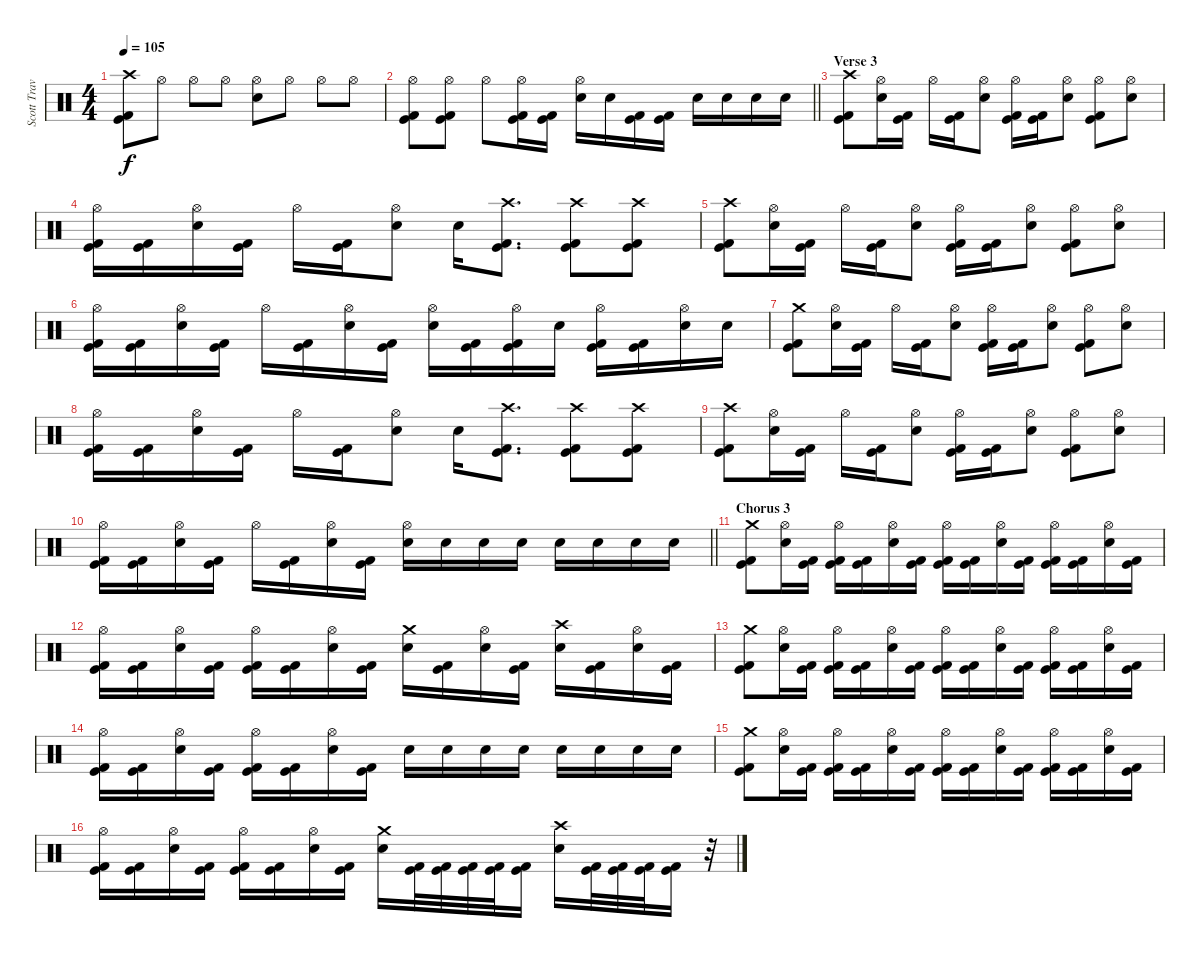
\track ("Scott Travis" "Scott Trav") {instrument percussion}
\staff {score}
\articulation defaults
\ts (4 4)
\tempo 105
\clef neutral
\ks c
("Crash high (hit)" "Kick (hit)" "Kick (hit) 2").8{dy f} "Hi-Hat (open)".8 "Hi-Hat (open)".8 "Hi-Hat (open)".8 ("Hi-Hat (open)" "Snare (hit) 2").8 "Hi-Hat (open)".8 "Hi-Hat (open)".8 "Hi-Hat (open)".8 |
\barLineRight lightlight
("Hi-Hat (open)" "Kick (hit)" "Kick (hit) 2").8 ("Hi-Hat (open)" "Kick (hit)" "Kick (hit) 2").8 "Hi-Hat (open)".8 ("Hi-Hat (open)" "Kick (hit)" "Kick (hit) 2").16 ("Kick (hit)" "Kick (hit) 2").16 ("Hi-Hat (open)" "Snare (hit) 2").16 "Snare (hit) 2".16 ("Kick (hit)" "Kick (hit) 2").16 ("Kick (hit)" "Kick (hit) 2").16 "Snare (hit) 2".16 "Snare (hit) 2".16 "Snare (hit) 2".16 "Snare (hit) 2".16 |
\section ("" "Verse 3")
("Crash high (hit)" "Kick (hit) 2" "Kick (hit)").8 ("Hi-Hat (open)" "Snare (hit) 2").16 ("Kick (hit) 2" "Kick (hit)").16 "Hi-Hat (open)".16 ("Kick (hit) 2" "Kick (hit)").16 ("Hi-Hat (open)" "Snare (hit) 2").8 ("Hi-Hat (open)" "Kick (hit) 2" "Kick (hit)").16 ("Kick (hit) 2" "Kick (hit)").16 ("Hi-Hat (open)" "Snare (hit) 2").8 ("Hi-Hat (open)" "Kick (hit) 2" "Kick (hit)").8 ("Hi-Hat (open)" "Snare (hit) 2").8 |
("Hi-Hat (open)" "Kick (hit) 2" "Kick (hit)").16 ("Kick (hit) 2" "Kick (hit)").16 ("Hi-Hat (open)" "Snare (hit) 2").16 ("Kick (hit) 2" "Kick (hit)").16 "Hi-Hat (open)".16 ("Kick (hit) 2" "Kick (hit)").16 ("Hi-Hat (open)" "Snare (hit) 2").8 "Snare (hit) 2".16 ("Crash high (hit)" "Kick (hit)" "Kick (hit) 2").8{d} ("Crash high (hit)" "Kick (hit) 2" "Kick (hit)").8 ("Crash high (hit)" "Kick (hit)" "Kick (hit) 2").8 |
("Crash high (hit)" "Kick (hit) 2" "Kick (hit)").8 ("Hi-Hat (open)" "Snare (hit) 2").16 ("Kick (hit) 2" "Kick (hit)").16 "Hi-Hat (open)".16 ("Kick (hit) 2" "Kick (hit)").16 ("Hi-Hat (open)" "Snare (hit) 2").8 ("Hi-Hat (open)" "Kick (hit) 2" "Kick (hit)").16 ("Kick (hit) 2" "Kick (hit)").16 ("Hi-Hat (open)" "Snare (hit) 2").8 ("Hi-Hat (open)" "Kick (hit) 2" "Kick (hit)").8 ("Hi-Hat (open)" "Snare (hit) 2").8 |
("Hi-Hat (open)" "Kick (hit) 2" "Kick (hit)").16 ("Kick (hit) 2" "Kick (hit)").16 ("Hi-Hat (open)" "Snare (hit) 2").16 ("Kick (hit) 2" "Kick (hit)").16 "Hi-Hat (open)".16 ("Kick (hit) 2" "Kick (hit)").16 ("Hi-Hat (open)" "Snare (hit) 2").16 ("Kick (hit)" "Kick (hit) 2").16 ("Hi-Hat (open)" "Snare (hit) 2").16 ("Kick (hit) 2" "Kick (hit)").16 ("Hi-Hat (open)" "Kick (hit) 2" "Kick (hit)").16 "Snare (hit) 2".16 ("Hi-Hat (open)" "Kick (hit) 2" "Kick (hit)").16 ("Kick (hit) 2" "Kick (hit)").16 ("Hi-Hat (open)" "Snare (hit) 2").16 "Snare (hit) 2".16 |
("Crash medium (hit)" "Kick (hit) 2" "Kick (hit)").8 ("Hi-Hat (open)" "Snare (hit) 2").16 ("Kick (hit) 2" "Kick (hit)").16 "Hi-Hat (open)".16 ("Kick (hit) 2" "Kick (hit)").16 ("Hi-Hat (open)" "Snare (hit) 2").8 ("Hi-Hat (open)" "Kick (hit) 2" "Kick (hit)").16 ("Kick (hit) 2" "Kick (hit)").16 ("Hi-Hat (open)" "Snare (hit) 2").8 ("Hi-Hat (open)" "Kick (hit) 2" "Kick (hit)").8 ("Hi-Hat (open)" "Snare (hit) 2").8 |
("Hi-Hat (open)" "Kick (hit) 2" "Kick (hit)").16 ("Kick (hit) 2" "Kick (hit)").16 ("Hi-Hat (open)" "Snare (hit) 2").16 ("Kick (hit) 2" "Kick (hit)").16 "Hi-Hat (open)".16 ("Kick (hit) 2" "Kick (hit)").16 ("Hi-Hat (open)" "Snare (hit) 2").8 "Snare (hit) 2".16 ("Crash high (hit)" "Kick (hit)" "Kick (hit) 2").8{d} ("Crash high (hit)" "Kick (hit) 2" "Kick (hit)").8 ("Crash high (hit)" "Kick (hit)" "Kick (hit) 2").8 |
("Crash high (hit)" "Kick (hit) 2" "Kick (hit)").8 ("Hi-Hat (open)" "Snare (hit) 2").16 ("Kick (hit) 2" "Kick (hit)").16 "Hi-Hat (open)".16 ("Kick (hit) 2" "Kick (hit)").16 ("Hi-Hat (open)" "Snare (hit) 2").8 ("Hi-Hat (open)" "Kick (hit) 2" "Kick (hit)").16 ("Kick (hit) 2" "Kick (hit)").16 ("Hi-Hat (open)" "Snare (hit) 2").8 ("Hi-Hat (open)" "Kick (hit) 2" "Kick (hit)").8 ("Hi-Hat (open)" "Snare (hit) 2").8 |
\barLineRight lightlight
("Hi-Hat (open)" "Kick (hit) 2" "Kick (hit)").16 ("Kick (hit) 2" "Kick (hit)").16 ("Hi-Hat (open)" "Snare (hit) 2").16 ("Kick (hit) 2" "Kick (hit)").16 "Hi-Hat (open)".16 ("Kick (hit) 2" "Kick (hit)").16 ("Hi-Hat (open)" "Snare (hit) 2").16 ("Kick (hit)" "Kick (hit) 2").16 ("Hi-Hat (open)" "Snare (hit) 2").16 "Snare (hit) 2".16 "Snare (hit) 2".16 "Snare (hit) 2".16 "Snare (hit) 2".16 "Snare (hit) 2".16 "Snare (hit) 2".16 "Snare (hit) 2".16 |
\section ("" "Chorus 3")
("Crash medium (hit)" "Kick (hit)" "Kick (hit) 2").8 ("Hi-Hat (open)" "Snare (hit) 2").16 ("Kick (hit) 2" "Kick (hit)").16 ("Hi-Hat (open)" "Kick (hit) 2" "Kick (hit)").16 ("Kick (hit) 2" "Kick (hit)").16 ("Hi-Hat (open)" "Snare (hit) 2").16 ("Kick (hit) 2" "Kick (hit)").16 ("Hi-Hat (open)" "Kick (hit) 2" "Kick (hit)").16 ("Kick (hit) 2" "Kick (hit)").16 ("Hi-Hat (open)" "Snare (hit) 2").16 ("Kick (hit) 2" "Kick (hit)").16 ("Hi-Hat (open)" "Kick (hit) 2" "Kick (hit)").16 ("Kick (hit) 2" "Kick (hit)").16 ("Hi-Hat (open)" "Snare (hit) 2").16 ("Kick (hit) 2" "Kick (hit)").16 |
("Hi-Hat (open)" "Kick (hit) 2" "Kick (hit)").16 ("Kick (hit) 2" "Kick (hit)").16 ("Hi-Hat (open)" "Snare (hit) 2").16 ("Kick (hit) 2" "Kick (hit)").16 ("Hi-Hat (open)" "Kick (hit) 2" "Kick (hit)").16 ("Kick (hit) 2" "Kick (hit)").16 ("Hi-Hat (open)" "Snare (hit) 2").16 ("Kick (hit) 2" "Kick (hit)").16 ("Crash medium (hit)" "Snare (hit) 2").16 ("Kick (hit) 2" "Kick (hit)").16 ("Hi-Hat (open)" "Snare (hit) 2").16 ("Kick (hit) 2" "Kick (hit)").16 ("Crash high (hit)" "Snare (hit) 2").16 ("Kick (hit) 2" "Kick (hit)").16 ("Hi-Hat (open)" "Snare (hit) 2").16 ("Kick (hit) 2" "Kick (hit)").16 |
("Crash medium (hit)" "Kick (hit)" "Kick (hit) 2").8 ("Hi-Hat (open)" "Snare (hit) 2").16 ("Kick (hit) 2" "Kick (hit)").16 ("Hi-Hat (open)" "Kick (hit) 2" "Kick (hit)").16 ("Kick (hit) 2" "Kick (hit)").16 ("Hi-Hat (open)" "Snare (hit) 2").16 ("Kick (hit) 2" "Kick (hit)").16 ("Hi-Hat (open)" "Kick (hit) 2" "Kick (hit)").16 ("Kick (hit) 2" "Kick (hit)").16 ("Hi-Hat (open)" "Snare (hit) 2").16 ("Kick (hit) 2" "Kick (hit)").16 ("Hi-Hat (open)" "Kick (hit) 2" "Kick (hit)").16 ("Kick (hit) 2" "Kick (hit)").16 ("Hi-Hat (open)" "Snare (hit) 2").16 ("Kick (hit) 2" "Kick (hit)").16 |
("Hi-Hat (open)" "Kick (hit) 2" "Kick (hit)").16 ("Kick (hit) 2" "Kick (hit)").16 ("Hi-Hat (open)" "Snare (hit) 2").16 ("Kick (hit) 2" "Kick (hit)").16 ("Hi-Hat (open)" "Kick (hit) 2" "Kick (hit)").16 ("Kick (hit) 2" "Kick (hit)").16 ("Hi-Hat (open)" "Snare (hit) 2").16 ("Kick (hit) 2" "Kick (hit)").16 "Snare (hit) 2".16 "Snare (hit) 2".16 "Snare (hit) 2".16 "Snare (hit) 2".16 "Snare (hit) 2".16 "Snare (hit) 2".16 "Snare (hit) 2".16 "Snare (hit) 2".16 |
("Crash medium (hit)" "Kick (hit)" "Kick (hit) 2").8 ("Hi-Hat (open)" "Snare (hit) 2").16 ("Kick (hit) 2" "Kick (hit)").16 ("Hi-Hat (open)" "Kick (hit) 2" "Kick (hit)").16 ("Kick (hit) 2" "Kick (hit)").16 ("Hi-Hat (open)" "Snare (hit) 2").16 ("Kick (hit) 2" "Kick (hit)").16 ("Hi-Hat (open)" "Kick (hit) 2" "Kick (hit)").16 ("Kick (hit) 2" "Kick (hit)").16 ("Hi-Hat (open)" "Snare (hit) 2").16 ("Kick (hit) 2" "Kick (hit)").16 ("Hi-Hat (open)" "Kick (hit) 2" "Kick (hit)").16 ("Kick (hit) 2" "Kick (hit)").16 ("Hi-Hat (open)" "Snare (hit) 2").16 ("Kick (hit) 2" "Kick (hit)").16 |
("Hi-Hat (open)" "Kick (hit) 2" "Kick (hit)").16 ("Kick (hit) 2" "Kick (hit)").16 ("Hi-Hat (open)" "Snare (hit) 2").16 ("Kick (hit) 2" "Kick (hit)").16 ("Hi-Hat (open)" "Kick (hit) 2" "Kick (hit)").16 ("Kick (hit) 2" "Kick (hit)").16 ("Hi-Hat (open)" "Snare (hit) 2").16 ("Kick (hit) 2" "Kick (hit)").16 ("Crash medium (hit)" "Snare (hit) 2").16 ("Kick (hit) 2" "Kick (hit)").32 ("Kick (hit) 2" "Kick (hit)").32 ("Kick (hit) 2" "Kick (hit)").32 ("Kick (hit) 2" "Kick (hit)").32 ("Kick (hit) 2" "Kick (hit)").16 ("Crash high (hit)" "Snare (hit) 2").16 ("Kick (hit) 2" "Kick (hit)").32 ("Kick (hit) 2" "Kick (hit)").32 ("Kick (hit) 2" "Kick (hit)").32 ("Kick (hit) 2" "Kick (hit)").16 r.32
